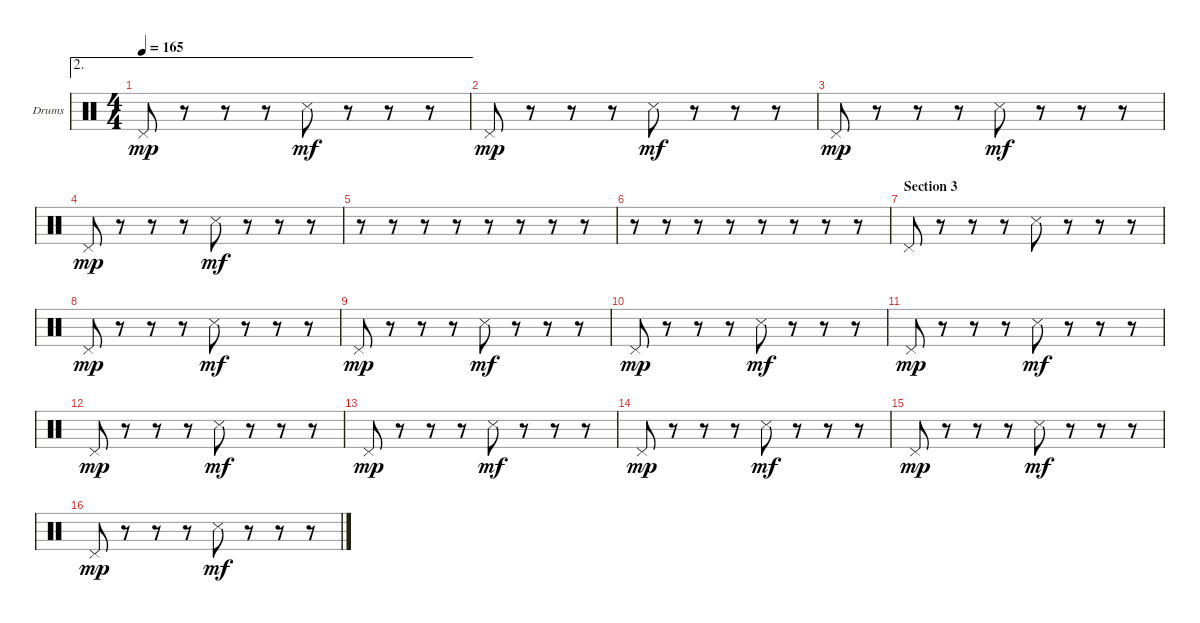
\bracketExtendMode groupsimilarinstruments
\firstSystemTrackNameOrientation horizontal
\otherSystemsTrackNameOrientation horizontal
\track ("Drumkit" "Drums") {instrument percussion}
\staff {score}
\articulation defaults
\ae 2
\ts (4 4)
\tempo 165
\clef neutral
\ks c "Pedal Hi-Hat (hit)".8{dy mp}
r.8 r.8 r.8 "Snare (side stick) 3".8{dy mf} r.8 r.8 r.8 |
"Pedal Hi-Hat (hit)".8{dy mp} r.8 r.8 r.8 "Snare (side stick) 3".8{dy mf} r.8 r.8 r.8 |
"Pedal Hi-Hat (hit)".8{dy mp} r.8 r.8 r.8 "Snare (side stick) 3".8{dy mf} r.8 r.8 r.8 |
"Pedal Hi-Hat (hit)".8{dy mp} r.8 r.8 r.8 "Snare (side stick) 3".8{dy mf} r.8 r.8 r.8 |
r.8 r.8 r.8 r.8 r.8 r.8 r.8 r.8 |
r.8 r.8 r.8 r.8 r.8 r.8 r.8 r.8 |
\section ("" "Section 3")
"Pedal Hi-Hat (hit)".8 r.8 r.8 r.8 "Snare (side stick) 3".8 r.8 r.8 r.8 |
"Pedal Hi-Hat (hit)".8{dy mp} r.8 r.8 r.8 "Snare (side stick) 3".8{dy mf} r.8 r.8 r.8 |
"Pedal Hi-Hat (hit)".8{dy mp} r.8 r.8 r.8 "Snare (side stick) 3".8{dy mf} r.8 r.8 r.8 |
"Pedal Hi-Hat (hit)".8{dy mp} r.8 r.8 r.8 "Snare (side stick) 3".8{dy mf} r.8 r.8 r.8 |
"Pedal Hi-Hat (hit)".8{dy mp} r.8 r.8 r.8 "Snare (side stick) 3".8{dy mf} r.8 r.8 r.8 |
"Pedal Hi-Hat (hit)".8{dy mp} r.8 r.8 r.8 "Snare (side stick) 3".8{dy mf} r.8 r.8 r.8 |
"Pedal Hi-Hat (hit)".8{dy mp} r.8 r.8 r.8 "Snare (side stick) 3".8{dy mf} r.8 r.8 r.8 |
"Pedal Hi-Hat (hit)".8{dy mp} r.8 r.8 r.8 "Snare (side stick) 3".8{dy mf} r.8 r.8 r.8 |
"Pedal Hi-Hat (hit)".8{dy mp} r.8 r.8 r.8 "Snare (side stick) 3".8{dy mf} r.8 r.8 r.8 |
"Pedal Hi-Hat (hit)".8{dy mp} r.8 r.8 r.8 "Snare (side stick) 3".8{dy mf} r.8 r.8 r.8
